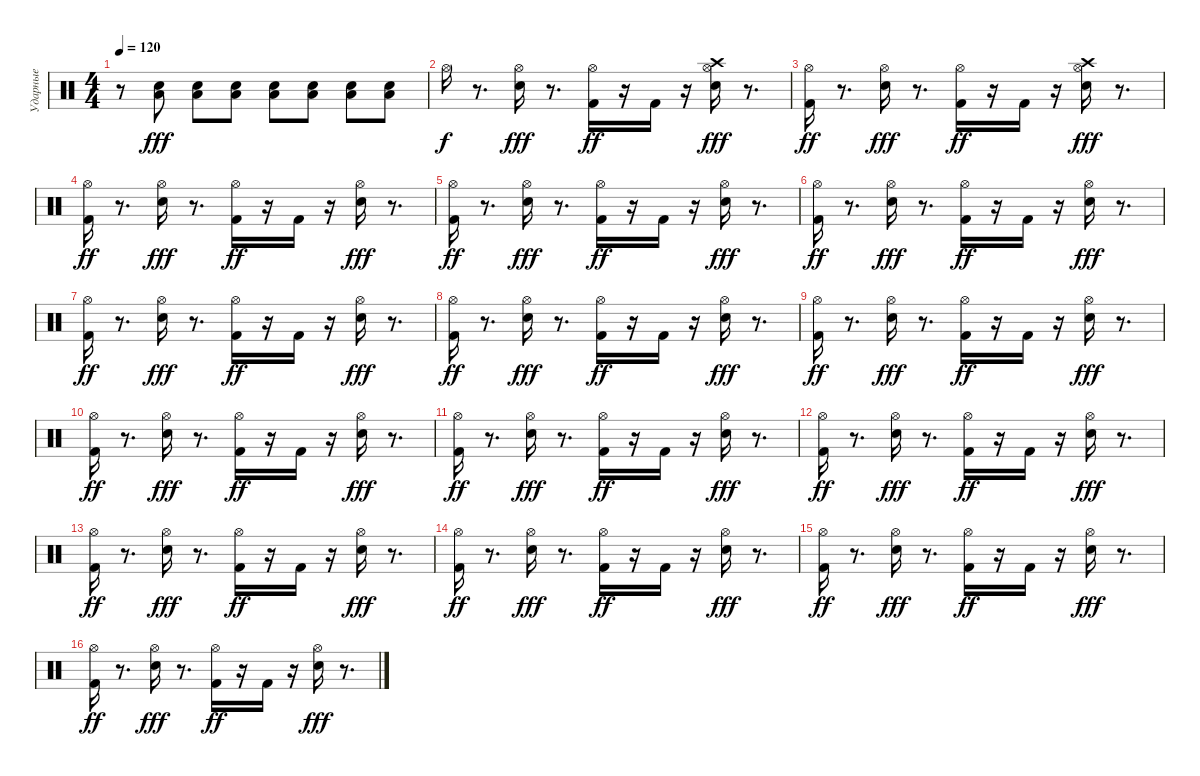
\track ("Ударные" "Ударные") {instrument percussion}
\staff {score}
\articulation defaults
\ts (4 4)
\tempo 120
\clef neutral
\ks c
r.8{dy fff} ("Snare (hit) 2" "Low Floor Tom (hit)").8 ("Snare (hit) 2" "Low Floor Tom (hit)").8 ("Snare (hit) 2" "Low Floor Tom (hit)").8 ("Snare (hit) 2" "Low Floor Tom (hit)").8 ("Snare (hit) 2" "Low Floor Tom (hit)").8 ("Snare (hit) 2" "Low Floor Tom (hit)").8 ("Snare (hit) 2" "Low Floor Tom (hit)").8 |
"Hi-Hat (open)".16{dy f} r.8{d} ("Snare (hit) 2" "Hi-Hat (open)").16{dy fff} r.8{d} ("Kick (hit) 2" "Hi-Hat (open)").16{dy ff} r.16 "Kick (hit) 2".16 r.16 ("Snare (hit) 2" "Hi-Hat (open)" "Crash high (hit)").16{dy fff} r.8{d} |
("Kick (hit) 2" "Hi-Hat (open)").16{dy ff} r.8{d} ("Snare (hit) 2" "Hi-Hat (open)").16{dy fff} r.8{d} ("Kick (hit) 2" "Hi-Hat (open)").16{dy ff} r.16 "Kick (hit) 2".16 r.16 ("Snare (hit) 2" "Hi-Hat (open)" "Crash high (hit)").16{dy fff} r.8{d} |
("Kick (hit) 2" "Hi-Hat (open)").16{dy ff} r.8{d} ("Snare (hit) 2" "Hi-Hat (open)").16{dy fff} r.8{d} ("Kick (hit) 2" "Hi-Hat (open)").16{dy ff} r.16 "Kick (hit) 2".16 r.16 ("Snare (hit) 2" "Hi-Hat (open)").16{dy fff} r.8{d} |
("Kick (hit) 2" "Hi-Hat (open)").16{dy ff} r.8{d} ("Snare (hit) 2" "Hi-Hat (open)").16{dy fff} r.8{d} ("Kick (hit) 2" "Hi-Hat (open)").16{dy ff} r.16 "Kick (hit) 2".16 r.16 ("Snare (hit) 2" "Hi-Hat (open)").16{dy fff} r.8{d} |
("Kick (hit) 2" "Hi-Hat (open)").16{dy ff} r.8{d} ("Snare (hit) 2" "Hi-Hat (open)").16{dy fff} r.8{d} ("Kick (hit) 2" "Hi-Hat (open)").16{dy ff} r.16 "Kick (hit) 2".16 r.16 ("Snare (hit) 2" "Hi-Hat (open)").16{dy fff} r.8{d} |
("Kick (hit) 2" "Hi-Hat (open)").16{dy ff} r.8{d} ("Snare (hit) 2" "Hi-Hat (open)").16{dy fff} r.8{d} ("Kick (hit) 2" "Hi-Hat (open)").16{dy ff} r.16 "Kick (hit) 2".16 r.16 ("Snare (hit) 2" "Hi-Hat (open)").16{dy fff} r.8{d} |
("Kick (hit) 2" "Hi-Hat (open)").16{dy ff} r.8{d} ("Snare (hit) 2" "Hi-Hat (open)").16{dy fff} r.8{d} ("Kick (hit) 2" "Hi-Hat (open)").16{dy ff} r.16 "Kick (hit) 2".16 r.16 ("Snare (hit) 2" "Hi-Hat (open)").16{dy fff} r.8{d} |
("Kick (hit) 2" "Hi-Hat (open)").16{dy ff} r.8{d} ("Snare (hit) 2" "Hi-Hat (open)").16{dy fff} r.8{d} ("Kick (hit) 2" "Hi-Hat (open)").16{dy ff} r.16 "Kick (hit) 2".16 r.16 ("Snare (hit) 2" "Hi-Hat (open)").16{dy fff} r.8{d} |
("Kick (hit) 2" "Hi-Hat (open)").16{dy ff} r.8{d} ("Snare (hit) 2" "Hi-Hat (open)").16{dy fff} r.8{d} ("Kick (hit) 2" "Hi-Hat (open)").16{dy ff} r.16 "Kick (hit) 2".16 r.16 ("Snare (hit) 2" "Hi-Hat (open)").16{dy fff} r.8{d} |
("Kick (hit) 2" "Hi-Hat (open)").16{dy ff} r.8{d} ("Snare (hit) 2" "Hi-Hat (open)").16{dy fff} r.8{d} ("Kick (hit) 2" "Hi-Hat (open)").16{dy ff} r.16 "Kick (hit) 2".16 r.16 ("Snare (hit) 2" "Hi-Hat (open)").16{dy fff} r.8{d} |
("Kick (hit) 2" "Hi-Hat (open)").16{dy ff} r.8{d} ("Snare (hit) 2" "Hi-Hat (open)").16{dy fff} r.8{d} ("Kick (hit) 2" "Hi-Hat (open)").16{dy ff} r.16 "Kick (hit) 2".16 r.16 ("Snare (hit) 2" "Hi-Hat (open)").16{dy fff} r.8{d} |
("Kick (hit) 2" "Hi-Hat (open)").16{dy ff} r.8{d} ("Snare (hit) 2" "Hi-Hat (open)").16{dy fff} r.8{d} ("Kick (hit) 2" "Hi-Hat (open)").16{dy ff} r.16 "Kick (hit) 2".16 r.16 ("Snare (hit) 2" "Hi-Hat (open)").16{dy fff} r.8{d} |
("Kick (hit) 2" "Hi-Hat (open)").16{dy ff} r.8{d} ("Snare (hit) 2" "Hi-Hat (open)").16{dy fff} r.8{d} ("Kick (hit) 2" "Hi-Hat (open)").16{dy ff} r.16 "Kick (hit) 2".16 r.16 ("Snare (hit) 2" "Hi-Hat (open)").16{dy fff} r.8{d} |
("Kick (hit) 2" "Hi-Hat (open)").16{dy ff} r.8{d} ("Snare (hit) 2" "Hi-Hat (open)").16{dy fff} r.8{d} ("Kick (hit) 2" "Hi-Hat (open)").16{dy ff} r.16 "Kick (hit) 2".16 r.16 ("Snare (hit) 2" "Hi-Hat (open)").16{dy fff} r.8{d} |
("Kick (hit) 2" "Hi-Hat (open)").16{dy ff} r.8{d} ("Snare (hit) 2" "Hi-Hat (open)").16{dy fff} r.8{d} ("Kick (hit) 2" "Hi-Hat (open)").16{dy ff} r.16 "Kick (hit) 2".16 r.16 ("Snare (hit) 2" "Hi-Hat (open)").16{dy fff} r.8{d}
